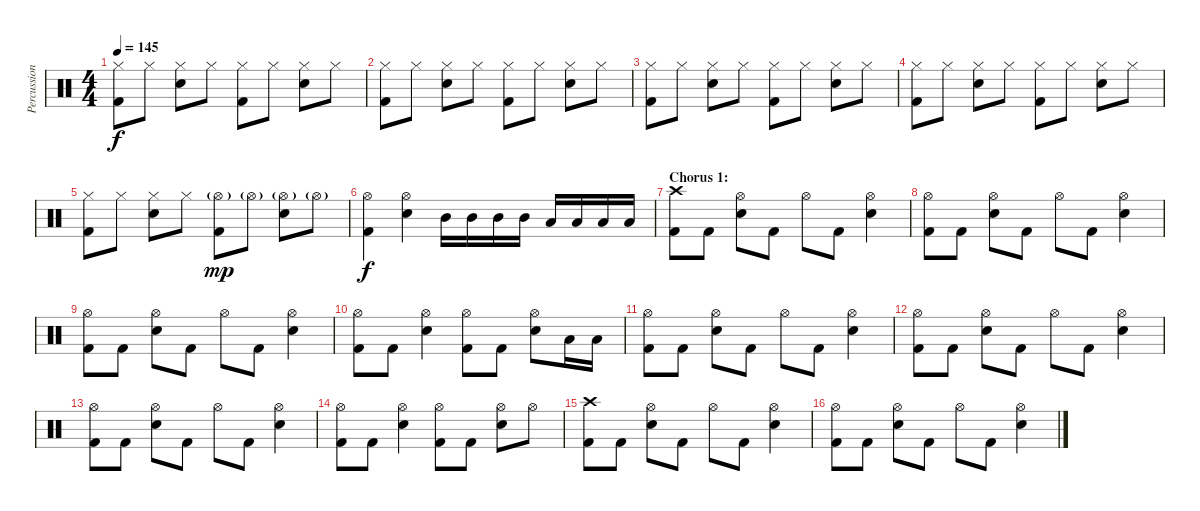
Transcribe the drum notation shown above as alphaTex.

\track ("Percussion" "Percussion") {instrument percussion}
\staff {score}
\articulation defaults
\ts (4 4)
\tempo 145
\clef neutral
\ks c
("Hi-Hat (closed)" "Kick (hit) 2").8{dy f} "Hi-Hat (closed)".8 ("Hi-Hat (closed)" "Snare (hit) 2").8 "Hi-Hat (closed)".8 ("Hi-Hat (closed)" "Kick (hit) 2").8 "Hi-Hat (closed)".8 ("Hi-Hat (closed)" "Snare (hit) 2").8 "Hi-Hat (closed)".8 |
("Hi-Hat (closed)" "Kick (hit) 2").8 "Hi-Hat (closed)".8 ("Hi-Hat (closed)" "Snare (hit) 2").8 "Hi-Hat (closed)".8 ("Hi-Hat (closed)" "Kick (hit) 2").8 "Hi-Hat (closed)".8 ("Hi-Hat (closed)" "Snare (hit) 2").8 "Hi-Hat (closed)".8 |
("Hi-Hat (closed)" "Kick (hit) 2").8 "Hi-Hat (closed)".8 ("Hi-Hat (closed)" "Snare (hit) 2").8 "Hi-Hat (closed)".8 ("Hi-Hat (closed)" "Kick (hit) 2").8 "Hi-Hat (closed)".8 ("Hi-Hat (closed)" "Snare (hit) 2").8 "Hi-Hat (closed)".8 |
("Hi-Hat (closed)" "Kick (hit) 2").8 "Hi-Hat (closed)".8 ("Hi-Hat (closed)" "Snare (hit) 2").8 "Hi-Hat (closed)".8 ("Hi-Hat (closed)" "Kick (hit) 2").8 "Hi-Hat (closed)".8 ("Hi-Hat (closed)" "Snare (hit) 2").8 "Hi-Hat (closed)".8 |
("Hi-Hat (closed)" "Kick (hit) 2").8 "Hi-Hat (closed)".8 ("Hi-Hat (closed)" "Snare (hit) 2").8 "Hi-Hat (closed)".8 ("Hi-Hat (open)"{g} "Kick (hit) 2").8{dy mp} "Hi-Hat (open)"{g}.8 ("Hi-Hat (open)"{g} "Snare (hit) 2").8 "Hi-Hat (open)"{g}.8 |
("Hi-Hat (open)" "Kick (hit) 2").4{dy f} ("Hi-Hat (open)" "Snare (hit) 2").4 "Mid Tom (hit)".16 "Mid Tom (hit)".16 "Mid Tom (hit)".16 "Mid Tom (hit)".16 "Low Tom (hit)".16 "Low Tom (hit)".16 "Low Tom (hit)".16 "Low Tom (hit)".16 |
\section ("" "Chorus 1:")
("Crash high (hit)" "Kick (hit) 2").8 "Kick (hit) 2".8 ("Hi-Hat (open)" "Snare (hit) 2").8 "Kick (hit) 2".8 "Hi-Hat (open)".8 "Kick (hit) 2".8 ("Hi-Hat (open)" "Snare (hit) 2").4 |
("Hi-Hat (open)" "Kick (hit) 2").8 "Kick (hit) 2".8 ("Hi-Hat (open)" "Snare (hit) 2").8 "Kick (hit) 2".8 "Hi-Hat (open)".8 "Kick (hit) 2".8 ("Hi-Hat (open)" "Snare (hit) 2").4 |
("Hi-Hat (open)" "Kick (hit) 2").8 "Kick (hit) 2".8 ("Hi-Hat (open)" "Snare (hit) 2").8 "Kick (hit) 2".8 "Hi-Hat (open)".8 "Kick (hit) 2".8 ("Hi-Hat (open)" "Snare (hit) 2").4 |
("Hi-Hat (open)" "Kick (hit) 2").8 "Kick (hit) 2".8 ("Hi-Hat (open)" "Snare (hit) 2").4 ("Hi-Hat (open)" "Kick (hit) 2").8 "Kick (hit) 2".8 ("Hi-Hat (open)" "Snare (hit) 2").8 "Low Tom (hit)".16 "Low Tom (hit)".16 |
("Hi-Hat (open)" "Kick (hit) 2").8 "Kick (hit) 2".8 ("Hi-Hat (open)" "Snare (hit) 2").8 "Kick (hit) 2".8 "Hi-Hat (open)".8 "Kick (hit) 2".8 ("Hi-Hat (open)" "Snare (hit) 2").4 |
("Hi-Hat (open)" "Kick (hit) 2").8 "Kick (hit) 2".8 ("Hi-Hat (open)" "Snare (hit) 2").8 "Kick (hit) 2".8 "Hi-Hat (open)".8 "Kick (hit) 2".8 ("Hi-Hat (open)" "Snare (hit) 2").4 |
("Hi-Hat (open)" "Kick (hit) 2").8 "Kick (hit) 2".8 ("Hi-Hat (open)" "Snare (hit) 2").8 "Kick (hit) 2".8 "Hi-Hat (open)".8 "Kick (hit) 2".8 ("Hi-Hat (open)" "Snare (hit) 2").4 |
("Hi-Hat (open)" "Kick (hit) 2").8 "Kick (hit) 2".8 ("Hi-Hat (open)" "Snare (hit) 2").4 ("Hi-Hat (open)" "Kick (hit) 2").8 "Kick (hit) 2".8 ("Hi-Hat (open)" "Snare (hit) 2").8 "Hi-Hat (open)".8 |
("Crash high (hit)" "Kick (hit) 2").8 "Kick (hit) 2".8 ("Hi-Hat (open)" "Snare (hit) 2").8 "Kick (hit) 2".8 "Hi-Hat (open)".8 "Kick (hit) 2".8 ("Hi-Hat (open)" "Snare (hit) 2").4 |
("Hi-Hat (open)" "Kick (hit) 2").8 "Kick (hit) 2".8 ("Hi-Hat (open)" "Snare (hit) 2").8 "Kick (hit) 2".8 "Hi-Hat (open)".8 "Kick (hit) 2".8 ("Hi-Hat (open)" "Snare (hit) 2").4
